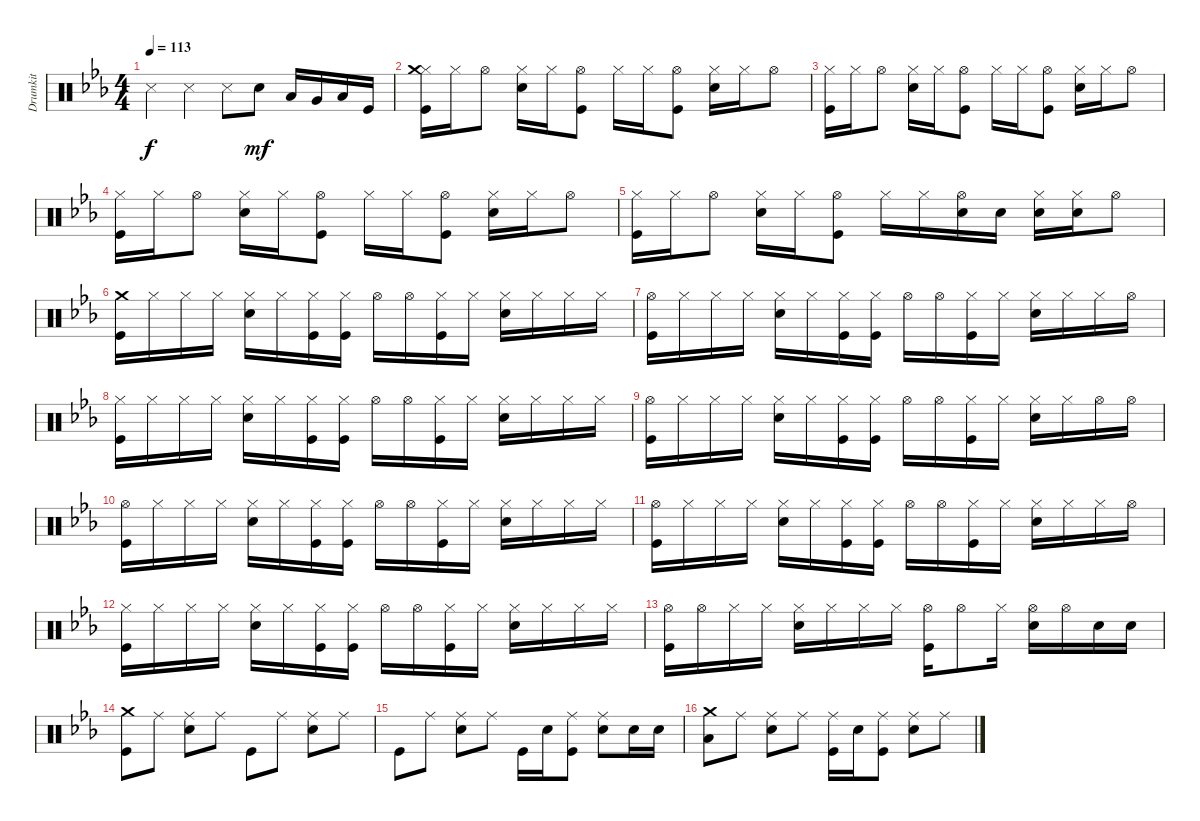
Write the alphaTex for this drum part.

\track ("Drumkit" "Drumkit") {instrument percussion}
\staff {score}
\articulation defaults
\ts (4 4)
\tempo 113
\clef neutral
\ks eb "Snare (side stick) 3".4{dy f} "Snare (side stick) 3".4 "Snare (side stick) 3".8 "Snare (hit) 2".8{dy mf} "Low Tom (hit)".16 "Very Low Tom (hit)".16 "Low Floor Tom (hit)".16 "Kick (hit)".16
|
("Hi-Hat (closed)" "Kick (hit)" "Crash medium (hit)").16 "Hi-Hat (closed)".16 "Hi-Hat (open)".8 ("Hi-Hat (closed)" "Snare (hit) 2").16 "Hi-Hat (closed)".16 ("Hi-Hat (open)" "Kick (hit)").8 "Hi-Hat (closed)".16 "Hi-Hat (closed)".16 ("Hi-Hat (open)" "Kick (hit)").8 ("Hi-Hat (closed)" "Snare (hit) 2").16 "Hi-Hat (closed)".16 "Hi-Hat (open)".8 |
("Hi-Hat (closed)" "Kick (hit)").16 "Hi-Hat (closed)".16 "Hi-Hat (open)".8 ("Hi-Hat (closed)" "Snare (hit) 2").16 "Hi-Hat (closed)".16 ("Hi-Hat (open)" "Kick (hit)").8 "Hi-Hat (closed)".16 "Hi-Hat (closed)".16 ("Hi-Hat (open)" "Kick (hit)").8 ("Hi-Hat (closed)" "Snare (hit) 2").16 "Hi-Hat (closed)".16 "Hi-Hat (open)".8 |
("Hi-Hat (closed)" "Kick (hit)").16 "Hi-Hat (closed)".16 "Hi-Hat (open)".8 ("Hi-Hat (closed)" "Snare (hit) 2").16 "Hi-Hat (closed)".16 ("Hi-Hat (open)" "Kick (hit)").8 "Hi-Hat (closed)".16 "Hi-Hat (closed)".16 ("Hi-Hat (open)" "Kick (hit)").8 ("Hi-Hat (closed)" "Snare (hit) 2").16 "Hi-Hat (closed)".16 "Hi-Hat (open)".8 |
("Hi-Hat (closed)" "Kick (hit)").16 "Hi-Hat (closed)".16 "Hi-Hat (open)".8 ("Hi-Hat (closed)" "Snare (hit) 2").16 "Hi-Hat (closed)".16 ("Hi-Hat (open)" "Kick (hit)").8 "Hi-Hat (closed)".16 "Hi-Hat (closed)".16 ("Hi-Hat (open)" "Snare (hit) 2").16 "Snare (hit) 2".16 ("Hi-Hat (closed)" "Snare (hit) 2").16 ("Hi-Hat (closed)" "Snare (hit) 2").16 "Hi-Hat (open)".8 |
("Crash medium (hit)" "Kick (hit)").16 "Hi-Hat (closed)".16 "Hi-Hat (closed)".16 "Hi-Hat (closed)".16 ("Hi-Hat (closed)" "Snare (hit) 2").16 "Hi-Hat (closed)".16 ("Hi-Hat (closed)" "Kick (hit)").16 ("Hi-Hat (closed)" "Kick (hit)").16 "Hi-Hat (open)".16 "Hi-Hat (open)".16 ("Hi-Hat (closed)" "Kick (hit)").16 "Hi-Hat (closed)".16 ("Hi-Hat (closed)" "Snare (hit) 2").16 "Hi-Hat (closed)".16 "Hi-Hat (closed)".16 "Hi-Hat (closed)".16 |
("Hi-Hat (open)" "Kick (hit)").16 "Hi-Hat (closed)".16 "Hi-Hat (closed)".16 "Hi-Hat (closed)".16 ("Hi-Hat (closed)" "Snare (hit) 2").16 "Hi-Hat (closed)".16 ("Hi-Hat (closed)" "Kick (hit)").16 ("Hi-Hat (closed)" "Kick (hit)").16 "Hi-Hat (open)".16 "Hi-Hat (open)".16 ("Hi-Hat (closed)" "Kick (hit)").16 "Hi-Hat (closed)".16 ("Hi-Hat (closed)" "Snare (hit) 2").16 "Hi-Hat (closed)".16 "Hi-Hat (closed)".16 "Hi-Hat (open)".16 |
("Hi-Hat (closed)" "Kick (hit)").16 "Hi-Hat (closed)".16 "Hi-Hat (closed)".16 "Hi-Hat (closed)".16 ("Hi-Hat (closed)" "Snare (hit) 2").16 "Hi-Hat (closed)".16 ("Hi-Hat (closed)" "Kick (hit)").16 ("Hi-Hat (closed)" "Kick (hit)").16 "Hi-Hat (open)".16 "Hi-Hat (open)".16 ("Hi-Hat (closed)" "Kick (hit)").16 "Hi-Hat (closed)".16 ("Hi-Hat (closed)" "Snare (hit) 2").16 "Hi-Hat (closed)".16 "Hi-Hat (closed)".16 "Hi-Hat (closed)".16 |
("Hi-Hat (open)" "Kick (hit)").16 "Hi-Hat (closed)".16 "Hi-Hat (closed)".16 "Hi-Hat (closed)".16 ("Hi-Hat (closed)" "Snare (hit) 2").16 "Hi-Hat (closed)".16 ("Hi-Hat (closed)" "Kick (hit)").16 ("Hi-Hat (closed)" "Kick (hit)").16 "Hi-Hat (open)".16 "Hi-Hat (open)".16 ("Hi-Hat (closed)" "Kick (hit)").16 "Hi-Hat (closed)".16 ("Hi-Hat (closed)" "Snare (hit) 2").16 "Hi-Hat (closed)".16 "Hi-Hat (open)".16 "Hi-Hat (open)".16 |
("Hi-Hat (open)" "Kick (hit)").16 "Hi-Hat (closed)".16 "Hi-Hat (closed)".16 "Hi-Hat (closed)".16 ("Hi-Hat (closed)" "Snare (hit) 2").16 "Hi-Hat (closed)".16 ("Hi-Hat (closed)" "Kick (hit)").16 ("Hi-Hat (closed)" "Kick (hit)").16 "Hi-Hat (open)".16 "Hi-Hat (open)".16 ("Hi-Hat (closed)" "Kick (hit)").16 "Hi-Hat (closed)".16 ("Hi-Hat (closed)" "Snare (hit) 2").16 "Hi-Hat (closed)".16 "Hi-Hat (closed)".16 "Hi-Hat (closed)".16 |
("Hi-Hat (open)" "Kick (hit)").16 "Hi-Hat (closed)".16 "Hi-Hat (closed)".16 "Hi-Hat (closed)".16 ("Hi-Hat (closed)" "Snare (hit) 2").16 "Hi-Hat (closed)".16 ("Hi-Hat (closed)" "Kick (hit)").16 ("Hi-Hat (closed)" "Kick (hit)").16 "Hi-Hat (open)".16 "Hi-Hat (open)".16 ("Hi-Hat (closed)" "Kick (hit)").16 "Hi-Hat (closed)".16 ("Hi-Hat (closed)" "Snare (hit) 2").16 "Hi-Hat (closed)".16 "Hi-Hat (closed)".16 "Hi-Hat (open)".16 |
("Hi-Hat (closed)" "Kick (hit)").16 "Hi-Hat (closed)".16 "Hi-Hat (closed)".16 "Hi-Hat (closed)".16 ("Hi-Hat (closed)" "Snare (hit) 2").16 "Hi-Hat (closed)".16 ("Hi-Hat (closed)" "Kick (hit)").16 ("Hi-Hat (closed)" "Kick (hit)").16 "Hi-Hat (open)".16 "Hi-Hat (open)".16 ("Hi-Hat (closed)" "Kick (hit)").16 "Hi-Hat (closed)".16 ("Hi-Hat (closed)" "Snare (hit) 2").16 "Hi-Hat (closed)".16 "Hi-Hat (closed)".16 "Hi-Hat (closed)".16 |
("Hi-Hat (open)" "Kick (hit)").16 "Hi-Hat (open)".16 "Hi-Hat (closed)".16 "Hi-Hat (closed)".16 ("Hi-Hat (closed)" "Snare (hit) 2").16 "Hi-Hat (closed)".16 "Hi-Hat (closed)".16 "Hi-Hat (closed)".16 ("Hi-Hat (open)" "Kick (hit)").16 "Hi-Hat (open)".8 "Hi-Hat (closed)".16 ("Hi-Hat (open)" "Snare (hit) 2").16 "Hi-Hat (open)".16 "Snare (hit) 2".16 "Snare (hit) 2".16 |
("Crash medium (hit)" "Kick (hit)").8 "Ride (middle)".8 ("Ride (middle)" "Snare (hit) 2").8 "Ride (middle)".8 "Kick (hit)".8 "Ride (middle)".8 ("Ride (middle)" "Snare (hit) 2").8 "Ride (middle)".8 |
"Kick (hit)".8 "Ride (middle)".8 ("Ride (middle)" "Snare (hit) 2").8 "Ride (middle)".8 "Kick (hit)".16 "Snare (hit) 2".16 ("Kick (hit)" "Ride (middle)").8 ("Snare (hit) 2" "Ride (middle)").8 "Snare (hit) 2".16 "Snare (hit) 2".16 |
("Low Floor Tom (hit)" "Crash medium (hit)").8 "Ride (middle)".8 ("Ride (middle)" "Snare (hit) 2").8 "Ride (middle)".8 ("Kick (hit)" "Ride (middle)").16 "Snare (hit) 2".16 ("Kick (hit)" "Ride (middle)").8 ("Snare (hit) 2" "Ride (middle)").8 "Ride (middle)".8
